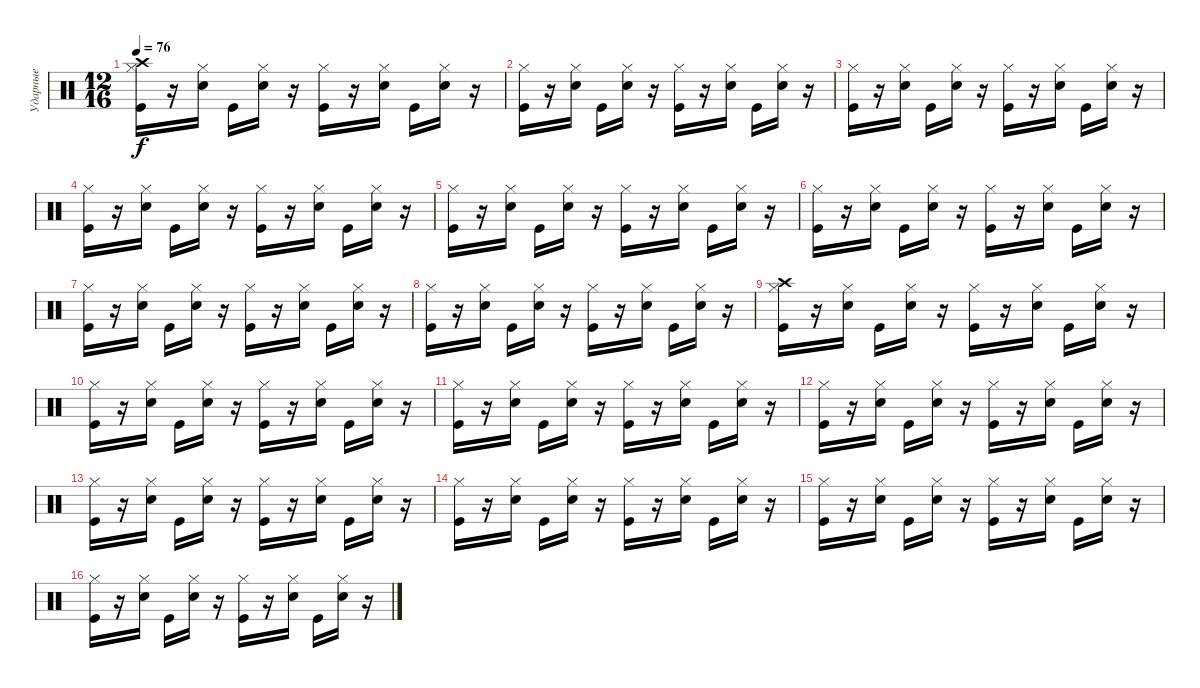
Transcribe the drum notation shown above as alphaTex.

\track ("Ударные" "Ударные") {instrument percussion}
\staff {score}
\articulation defaults
\ts (12 16)
\tempo 76
\clef neutral
\ks c
("Hi-Hat (closed)" "Kick (hit)" "Crash high (hit)").16{dy f} r.16 ("Hi-Hat (closed)" "Electric Snare (hit)").16 "Kick (hit)".16 ("Hi-Hat (closed)" "Electric Snare (hit)").16 r.16 ("Hi-Hat (closed)" "Kick (hit)").16 r.16 ("Hi-Hat (closed)" "Electric Snare (hit)").16 "Kick (hit)".16 ("Hi-Hat (closed)" "Electric Snare (hit)").16 r.16 |
("Hi-Hat (closed)" "Kick (hit)").16 r.16 ("Hi-Hat (closed)" "Electric Snare (hit)").16 "Kick (hit)".16 ("Hi-Hat (closed)" "Electric Snare (hit)").16 r.16 ("Hi-Hat (closed)" "Kick (hit)").16 r.16 ("Hi-Hat (closed)" "Electric Snare (hit)").16 "Kick (hit)".16 ("Hi-Hat (closed)" "Electric Snare (hit)").16 r.16 |
("Hi-Hat (closed)" "Kick (hit)").16 r.16 ("Hi-Hat (closed)" "Electric Snare (hit)").16 "Kick (hit)".16 ("Hi-Hat (closed)" "Electric Snare (hit)").16 r.16 ("Hi-Hat (closed)" "Kick (hit)").16 r.16 ("Hi-Hat (closed)" "Electric Snare (hit)").16 "Kick (hit)".16 ("Hi-Hat (closed)" "Electric Snare (hit)").16 r.16 |
("Hi-Hat (closed)" "Kick (hit)").16 r.16 ("Hi-Hat (closed)" "Electric Snare (hit)").16 "Kick (hit)".16 ("Hi-Hat (closed)" "Electric Snare (hit)").16 r.16 ("Hi-Hat (closed)" "Kick (hit)").16 r.16 ("Hi-Hat (closed)" "Electric Snare (hit)").16 "Kick (hit)".16 ("Hi-Hat (closed)" "Electric Snare (hit)").16 r.16 |
("Hi-Hat (closed)" "Kick (hit)").16 r.16 ("Hi-Hat (closed)" "Electric Snare (hit)").16 "Kick (hit)".16 ("Hi-Hat (closed)" "Electric Snare (hit)").16 r.16 ("Hi-Hat (closed)" "Kick (hit)").16 r.16 ("Hi-Hat (closed)" "Electric Snare (hit)").16 "Kick (hit)".16 ("Hi-Hat (closed)" "Electric Snare (hit)").16 r.16 |
("Hi-Hat (closed)" "Kick (hit)").16 r.16 ("Hi-Hat (closed)" "Electric Snare (hit)").16 "Kick (hit)".16 ("Hi-Hat (closed)" "Electric Snare (hit)").16 r.16 ("Hi-Hat (closed)" "Kick (hit)").16 r.16 ("Hi-Hat (closed)" "Electric Snare (hit)").16 "Kick (hit)".16 ("Hi-Hat (closed)" "Electric Snare (hit)").16 r.16 |
("Hi-Hat (closed)" "Kick (hit)").16 r.16 ("Hi-Hat (closed)" "Electric Snare (hit)").16 "Kick (hit)".16 ("Hi-Hat (closed)" "Electric Snare (hit)").16 r.16 ("Hi-Hat (closed)" "Kick (hit)").16 r.16 ("Hi-Hat (closed)" "Electric Snare (hit)").16 "Kick (hit)".16 ("Hi-Hat (closed)" "Electric Snare (hit)").16 r.16 |
("Hi-Hat (closed)" "Kick (hit)").16 r.16 ("Hi-Hat (closed)" "Electric Snare (hit)").16 "Kick (hit)".16 ("Hi-Hat (closed)" "Electric Snare (hit)").16 r.16 ("Hi-Hat (closed)" "Kick (hit)").16 r.16 ("Hi-Hat (closed)" "Electric Snare (hit)").16 "Kick (hit)".16 ("Hi-Hat (closed)" "Electric Snare (hit)").16 r.16 |
("Hi-Hat (closed)" "Kick (hit)" "Crash high (hit)").16 r.16 ("Hi-Hat (closed)" "Electric Snare (hit)").16 "Kick (hit)".16 ("Hi-Hat (closed)" "Electric Snare (hit)").16 r.16 ("Hi-Hat (closed)" "Kick (hit)").16 r.16 ("Hi-Hat (closed)" "Electric Snare (hit)").16 "Kick (hit)".16 ("Hi-Hat (closed)" "Electric Snare (hit)").16 r.16 |
("Hi-Hat (closed)" "Kick (hit)").16 r.16 ("Hi-Hat (closed)" "Electric Snare (hit)").16 "Kick (hit)".16 ("Hi-Hat (closed)" "Electric Snare (hit)").16 r.16 ("Hi-Hat (closed)" "Kick (hit)").16 r.16 ("Hi-Hat (closed)" "Electric Snare (hit)").16 "Kick (hit)".16 ("Hi-Hat (closed)" "Electric Snare (hit)").16 r.16 |
("Hi-Hat (closed)" "Kick (hit)").16 r.16 ("Hi-Hat (closed)" "Electric Snare (hit)").16 "Kick (hit)".16 ("Hi-Hat (closed)" "Electric Snare (hit)").16 r.16 ("Hi-Hat (closed)" "Kick (hit)").16 r.16 ("Hi-Hat (closed)" "Electric Snare (hit)").16 "Kick (hit)".16 ("Hi-Hat (closed)" "Electric Snare (hit)").16 r.16 |
("Hi-Hat (closed)" "Kick (hit)").16 r.16 ("Hi-Hat (closed)" "Electric Snare (hit)").16 "Kick (hit)".16 ("Hi-Hat (closed)" "Electric Snare (hit)").16 r.16 ("Hi-Hat (closed)" "Kick (hit)").16 r.16 ("Hi-Hat (closed)" "Electric Snare (hit)").16 "Kick (hit)".16 ("Hi-Hat (closed)" "Electric Snare (hit)").16 r.16 |
("Hi-Hat (closed)" "Kick (hit)").16 r.16 ("Hi-Hat (closed)" "Electric Snare (hit)").16 "Kick (hit)".16 ("Hi-Hat (closed)" "Electric Snare (hit)").16 r.16 ("Hi-Hat (closed)" "Kick (hit)").16 r.16 ("Hi-Hat (closed)" "Electric Snare (hit)").16 "Kick (hit)".16 ("Hi-Hat (closed)" "Electric Snare (hit)").16 r.16 |
("Hi-Hat (closed)" "Kick (hit)").16 r.16 ("Hi-Hat (closed)" "Electric Snare (hit)").16 "Kick (hit)".16 ("Hi-Hat (closed)" "Electric Snare (hit)").16 r.16 ("Hi-Hat (closed)" "Kick (hit)").16 r.16 ("Hi-Hat (closed)" "Electric Snare (hit)").16 "Kick (hit)".16 ("Hi-Hat (closed)" "Electric Snare (hit)").16 r.16 |
("Hi-Hat (closed)" "Kick (hit)").16 r.16 ("Hi-Hat (closed)" "Electric Snare (hit)").16 "Kick (hit)".16 ("Hi-Hat (closed)" "Electric Snare (hit)").16 r.16 ("Hi-Hat (closed)" "Kick (hit)").16 r.16 ("Hi-Hat (closed)" "Electric Snare (hit)").16 "Kick (hit)".16 ("Hi-Hat (closed)" "Electric Snare (hit)").16 r.16 |
("Hi-Hat (closed)" "Kick (hit)").16 r.16 ("Hi-Hat (closed)" "Electric Snare (hit)").16 "Kick (hit)".16 ("Hi-Hat (closed)" "Electric Snare (hit)").16 r.16 ("Hi-Hat (closed)" "Kick (hit)").16 r.16 ("Hi-Hat (closed)" "Electric Snare (hit)").16 "Kick (hit)".16 ("Hi-Hat (closed)" "Electric Snare (hit)").16 r.16
